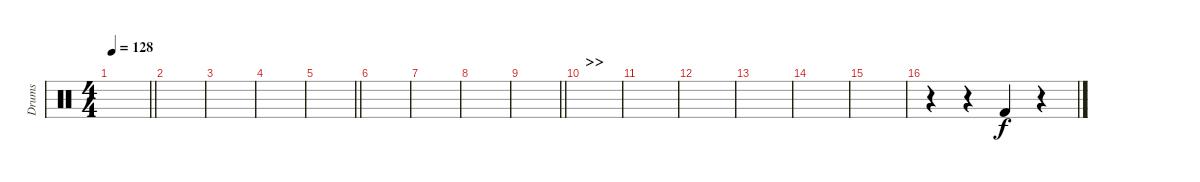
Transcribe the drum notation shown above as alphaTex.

\track ("Drums" "Drums") {instrument percussion}
\staff {score}
\articulation defaults
\ts (4 4)
\tempo 128
\clef neutral
\barLineRight lightlight
\ks c
|
|
|
|
\barLineRight lightlight
|
|
|
|
\barLineRight lightlight
|
\section ("" ">>")
|
|
|
|
|
|
r.4 r.4 "Kick (hit) 2".4 r.4
